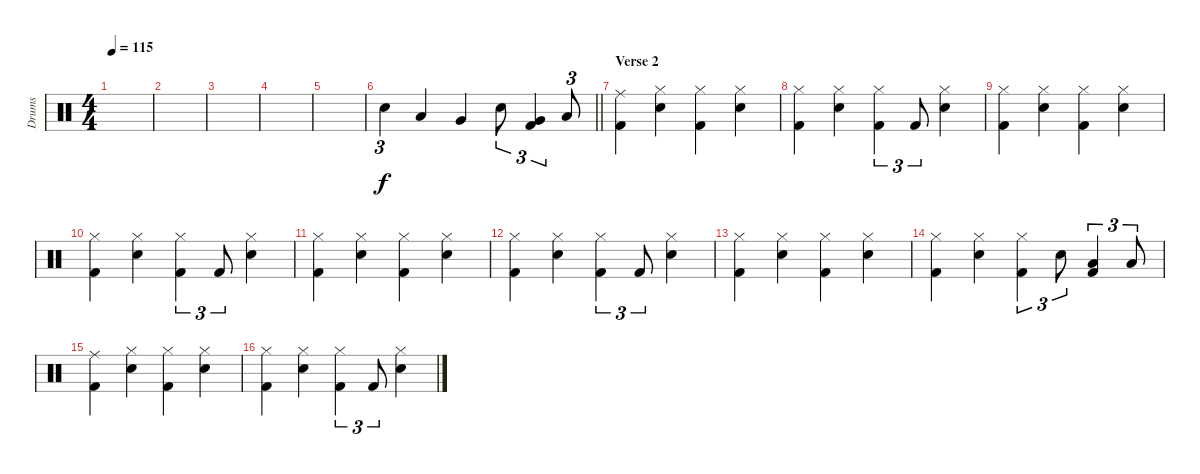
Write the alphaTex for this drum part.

\track ("Drums" "Drums") {instrument percussion}
\staff {score}
\articulation defaults
\ts (4 4)
\tempo 115
\clef neutral
\ks c
|
|
|
|
|
\barLineRight lightlight "Electric Snare (hit)".4{tu (3 2)} "Low Tom (hit)".4 "Very Low Tom (hit)".4 "Electric Snare (hit)".8{tu (3 2)}
("Very Low Tom (hit)" "Kick (hit) 2").4{tu (3 2)} "Low Floor Tom (hit)".8{tu (3 2)} |
\section ("" "Verse 2")
("Ride (middle)" "Kick (hit) 2").4 ("Hi-Hat (closed)" "Electric Snare (hit)").4 ("Hi-Hat (closed)" "Kick (hit) 2").4 ("Hi-Hat (closed)" "Electric Snare (hit)").4 |
("Hi-Hat (closed)" "Kick (hit) 2").4 ("Hi-Hat (closed)" "Electric Snare (hit)").4 ("Hi-Hat (closed)" "Kick (hit) 2").4{tu (3 2)} "Kick (hit) 2".8{tu (3 2)} ("Hi-Hat (closed)" "Electric Snare (hit)").4 |
("Hi-Hat (closed)" "Kick (hit) 2").4 ("Hi-Hat (closed)" "Electric Snare (hit)").4 ("Hi-Hat (closed)" "Kick (hit) 2").4 ("Hi-Hat (closed)" "Electric Snare (hit)").4 |
("Hi-Hat (closed)" "Kick (hit) 2").4 ("Hi-Hat (closed)" "Electric Snare (hit)").4 ("Hi-Hat (closed)" "Kick (hit) 2").4{tu (3 2)} "Kick (hit) 2".8{tu (3 2)} ("Hi-Hat (closed)" "Electric Snare (hit)").4 |
("Hi-Hat (closed)" "Kick (hit) 2").4 ("Hi-Hat (closed)" "Electric Snare (hit)").4 ("Hi-Hat (closed)" "Kick (hit) 2").4 ("Hi-Hat (closed)" "Electric Snare (hit)").4 |
("Hi-Hat (closed)" "Kick (hit) 2").4 ("Hi-Hat (closed)" "Electric Snare (hit)").4 ("Hi-Hat (closed)" "Kick (hit) 2").4{tu (3 2)} "Kick (hit) 2".8{tu (3 2)} ("Hi-Hat (closed)" "Electric Snare (hit)").4 |
("Hi-Hat (closed)" "Kick (hit) 2").4 ("Hi-Hat (closed)" "Electric Snare (hit)").4 ("Hi-Hat (closed)" "Kick (hit) 2").4 ("Hi-Hat (closed)" "Electric Snare (hit)").4 |
("Hi-Hat (closed)" "Kick (hit) 2").4 ("Hi-Hat (closed)" "Electric Snare (hit)").4 ("Hi-Hat (closed)" "Kick (hit) 2").4{tu (3 2)} "Electric Snare (hit)".8{tu (3 2)} ("Low Tom (hit)" "Kick (hit) 2").4{tu (3 2)} "Low Floor Tom (hit)".8{tu (3 2)} |
("Ride (middle)" "Kick (hit) 2").4 ("Hi-Hat (closed)" "Electric Snare (hit)").4 ("Hi-Hat (closed)" "Kick (hit) 2").4 ("Hi-Hat (closed)" "Electric Snare (hit)").4 |
("Hi-Hat (closed)" "Kick (hit) 2").4 ("Hi-Hat (closed)" "Electric Snare (hit)").4 ("Hi-Hat (closed)" "Kick (hit) 2").4{tu (3 2)} "Kick (hit) 2".8{tu (3 2)} ("Hi-Hat (closed)" "Electric Snare (hit)").4
